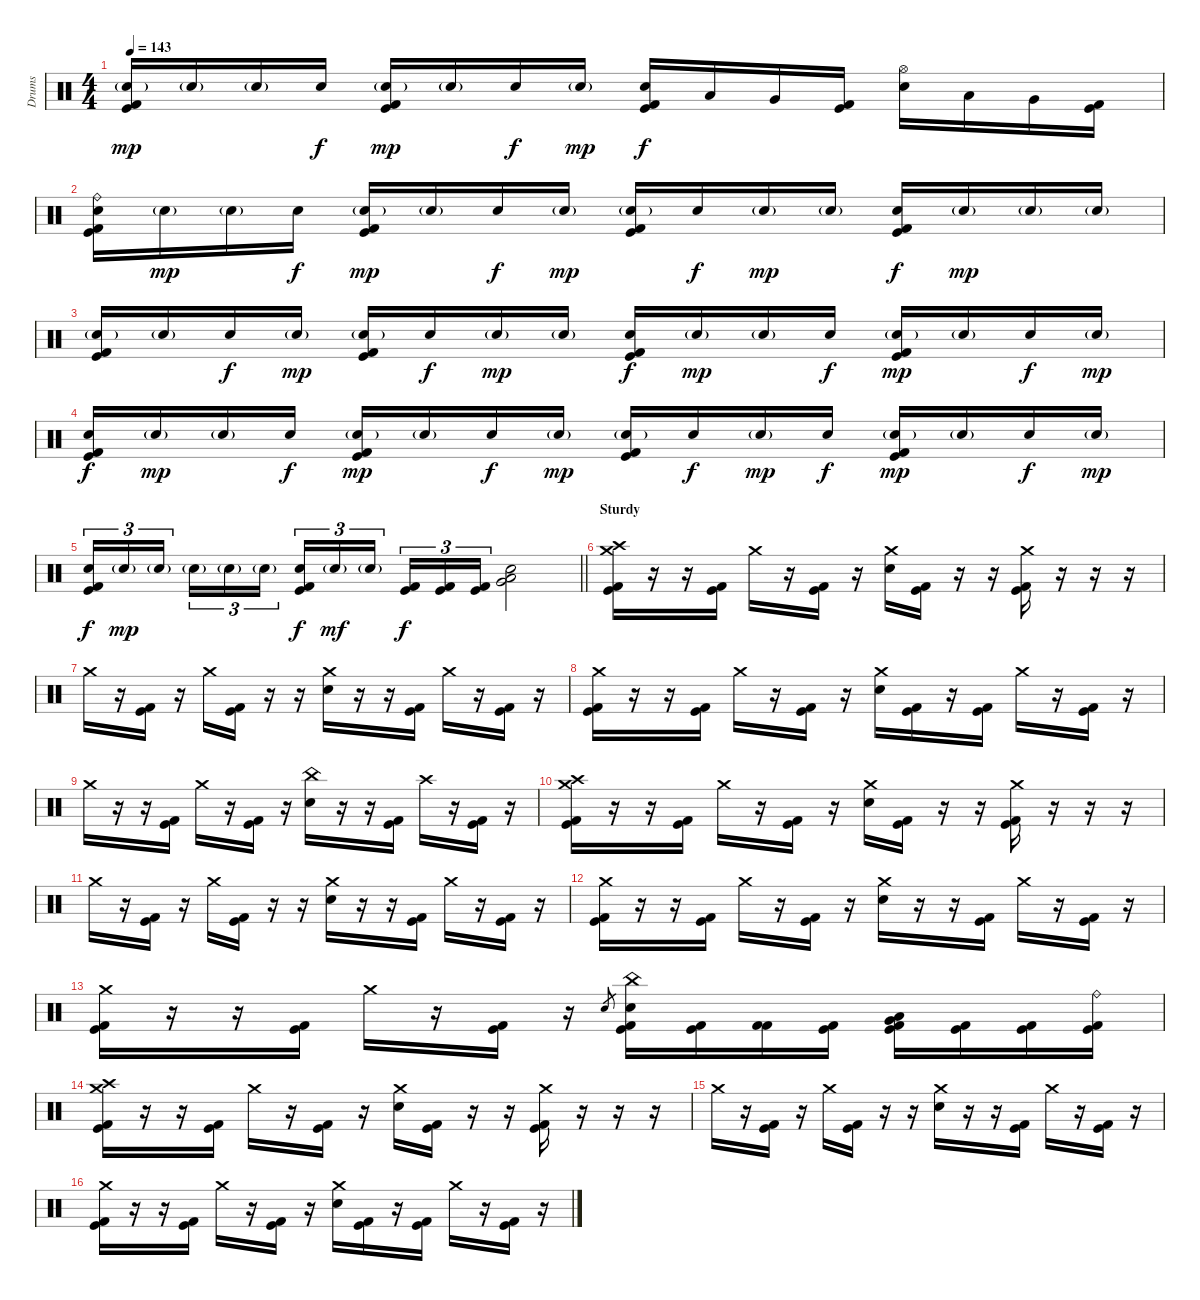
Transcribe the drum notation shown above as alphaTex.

\track ("Drums" "Drums") {instrument percussion}
\staff {score}
\articulation defaults
\ts (4 4)
\tempo 143
\clef neutral
\ks c
("Electric Snare (hit)"{g} "Kick (hit)" "Kick (hit) 2").16{dy mp} "Electric Snare (hit)"{g}.16 "Electric Snare (hit)"{g}.16 "Electric Snare (hit)".16{dy f} ("Electric Snare (hit)"{g} "Kick (hit)" "Kick (hit) 2").16{dy mp} "Electric Snare (hit)"{g}.16 "Electric Snare (hit)".16{dy f} "Electric Snare (hit)"{g}.16{dy mp} ("Electric Snare (hit)" "Kick (hit)" "Kick (hit) 2").16{dy f} "Low Tom (hit)".16 "Very Low Tom (hit)".16 ("Kick (hit)" "Kick (hit) 2").16 ("Hi-Hat (open)" "Electric Snare (hit)").16 "Low Tom (hit)".16 "Very Low Tom (hit)".16 ("Kick (hit)" "Kick (hit) 2").16 |
("Ride (bell)" "Electric Snare (hit)" "Kick (hit)" "Kick (hit) 2").16 "Electric Snare (hit)"{g}.16{dy mp} "Electric Snare (hit)"{g}.16 "Electric Snare (hit)".16{dy f} ("Electric Snare (hit)"{g} "Kick (hit)" "Kick (hit) 2").16{dy mp} "Electric Snare (hit)"{g}.16 "Electric Snare (hit)".16{dy f} "Electric Snare (hit)"{g}.16{dy mp} ("Electric Snare (hit)"{g} "Kick (hit)" "Kick (hit) 2").16 "Electric Snare (hit)".16{dy f} "Electric Snare (hit)"{g}.16{dy mp} "Electric Snare (hit)"{g}.16 ("Electric Snare (hit)" "Kick (hit)" "Kick (hit) 2").16{dy f} "Electric Snare (hit)"{g}.16{dy mp} "Electric Snare (hit)"{g}.16 "Electric Snare (hit)"{g}.16 |
("Electric Snare (hit)"{g} "Kick (hit)" "Kick (hit) 2").16 "Electric Snare (hit)"{g}.16 "Electric Snare (hit)".16{dy f} "Electric Snare (hit)"{g}.16{dy mp} ("Electric Snare (hit)"{g} "Kick (hit)" "Kick (hit) 2").16 "Electric Snare (hit)".16{dy f} "Electric Snare (hit)"{g}.16{dy mp} "Electric Snare (hit)"{g}.16 ("Electric Snare (hit)" "Kick (hit)" "Kick (hit) 2").16{dy f} "Electric Snare (hit)"{g}.16{dy mp} "Electric Snare (hit)"{g}.16 "Electric Snare (hit)".16{dy f} ("Electric Snare (hit)"{g} "Kick (hit)" "Kick (hit) 2").16{dy mp} "Electric Snare (hit)"{g}.16 "Electric Snare (hit)".16{dy f} "Electric Snare (hit)"{g}.16{dy mp} |
("Electric Snare (hit)" "Kick (hit)" "Kick (hit) 2").16{dy f} "Electric Snare (hit)"{g}.16{dy mp} "Electric Snare (hit)"{g}.16 "Electric Snare (hit)".16{dy f} ("Electric Snare (hit)"{g} "Kick (hit)" "Kick (hit) 2").16{dy mp} "Electric Snare (hit)"{g}.16 "Electric Snare (hit)".16{dy f} "Electric Snare (hit)"{g}.16{dy mp} ("Electric Snare (hit)"{g} "Kick (hit)" "Kick (hit) 2").16 "Electric Snare (hit)".16{dy f} "Electric Snare (hit)"{g}.16{dy mp} "Electric Snare (hit)".16{dy f} ("Electric Snare (hit)"{g} "Kick (hit)" "Kick (hit) 2").16{dy mp} "Electric Snare (hit)"{g}.16 "Electric Snare (hit)".16{dy f} "Electric Snare (hit)"{g}.16{dy mp} |
\barLineRight lightlight
("Electric Snare (hit)" "Kick (hit)" "Kick (hit) 2").16{tu (3 2) dy f} "Electric Snare (hit)"{g}.16{tu (3 2) dy mp} "Electric Snare (hit)"{g}.16{tu (3 2) beam splitsecondary} "Electric Snare (hit)"{g}.16{tu (3 2)} "Electric Snare (hit)"{g}.16{tu (3 2)} "Electric Snare (hit)"{g}.16{tu (3 2)} ("Electric Snare (hit)" "Kick (hit)" "Kick (hit) 2").16{tu (3 2) dy f} "Electric Snare (hit)"{g}.16{tu (3 2) dy mf} "Electric Snare (hit)"{g}.16{tu (3 2) beam splitsecondary} ("Kick (hit)" "Kick (hit) 2").16{tu (3 2) dy f} ("Kick (hit)" "Kick (hit) 2").16{tu (3 2)} ("Kick (hit)" "Kick (hit) 2").16{tu (3 2)} ("Low Floor Tom (hit)" "Very Low Tom (hit)" "Electric Snare (hit)").2 |
\section ("" "Sturdy")
("Crash medium (hit)" "Crash high (hit)" "Kick (hit)" "Kick (hit) 2").16 r.16 r.16 ("Kick (hit)" "Kick (hit) 2").16 "Crash medium (hit)".16 r.16 ("Kick (hit)" "Kick (hit) 2").16 r.16 ("Crash medium (hit)" "Electric Snare (hit)").16 ("Kick (hit)" "Kick (hit) 2").16 r.16 r.16 ("Crash medium (hit)" "Kick (hit)" "Kick (hit) 2").16 r.16 r.16 r.16 |
"Crash medium (hit)".16 r.16 ("Kick (hit)" "Kick (hit) 2").16 r.16 "Crash medium (hit)".16 ("Kick (hit)" "Kick (hit) 2").16 r.16 r.16 ("Crash medium (hit)" "Electric Snare (hit)").16 r.16 r.16 ("Kick (hit)" "Kick (hit) 2").16 "Crash medium (hit)".16 r.16 ("Kick (hit)" "Kick (hit) 2").16 r.16 |
("Crash medium (hit)" "Kick (hit)" "Kick (hit) 2").16 r.16 r.16 ("Kick (hit)" "Kick (hit) 2").16 "Crash medium (hit)".16 r.16 ("Kick (hit)" "Kick (hit) 2").16 r.16 ("Crash medium (hit)" "Electric Snare (hit)").16 ("Kick (hit)" "Kick (hit) 2").16 r.16 ("Kick (hit)" "Kick (hit) 2").16 "Crash medium (hit)".16 r.16 ("Kick (hit)" "Kick (hit) 2").16 r.16 |
"Crash medium (hit)".16 r.16 r.16 ("Kick (hit)" "Kick (hit) 2").16 "Crash medium (hit)".16 r.16 ("Kick (hit)" "Kick (hit) 2").16 r.16 ("China (hit)" "Electric Snare (hit)").16 r.16 r.16 ("Kick (hit)" "Kick (hit) 2").16 "Crash high (hit)".16 r.16 ("Kick (hit)" "Kick (hit) 2").16 r.16 |
("Crash medium (hit)" "Crash high (hit)" "Kick (hit)" "Kick (hit) 2").16 r.16 r.16 ("Kick (hit)" "Kick (hit) 2").16 "Crash medium (hit)".16 r.16 ("Kick (hit)" "Kick (hit) 2").16 r.16 ("Crash medium (hit)" "Electric Snare (hit)").16 ("Kick (hit)" "Kick (hit) 2").16 r.16 r.16 ("Crash medium (hit)" "Kick (hit)" "Kick (hit) 2").16 r.16 r.16 r.16 |
"Crash medium (hit)".16 r.16 ("Kick (hit)" "Kick (hit) 2").16 r.16 "Crash medium (hit)".16 ("Kick (hit)" "Kick (hit) 2").16 r.16 r.16 ("Crash medium (hit)" "Electric Snare (hit)").16 r.16 r.16 ("Kick (hit)" "Kick (hit) 2").16 "Crash medium (hit)".16 r.16 ("Kick (hit)" "Kick (hit) 2").16 r.16 |
("Crash medium (hit)" "Kick (hit)" "Kick (hit) 2").16 r.16 r.16 ("Kick (hit)" "Kick (hit) 2").16 "Crash medium (hit)".16 r.16 ("Kick (hit)" "Kick (hit) 2").16 r.16 ("Crash medium (hit)" "Electric Snare (hit)").16 r.16 r.16 ("Kick (hit)" "Kick (hit) 2").16 "Crash medium (hit)".16 r.16 ("Kick (hit)" "Kick (hit) 2").16 r.16 |
("Crash medium (hit)" "Kick (hit)" "Kick (hit) 2").16 r.16 r.16 ("Kick (hit)" "Kick (hit) 2").16 "Crash medium (hit)".16 r.16 ("Kick (hit)" "Kick (hit) 2").16 r.16 "Electric Snare (hit)".8{gr} ("China (hit)" "Electric Snare (hit)" "Kick (hit)" "Kick (hit) 2").16 ("Kick (hit)" "Kick (hit) 2").16 ("Kick (hit) 2" "Kick (hit) 2").16 ("Kick (hit)" "Kick (hit) 2").16 ("Low Floor Tom (hit)" "Very Low Tom (hit)" "Kick (hit)" "Kick (hit) 2").16 ("Kick (hit)" "Kick (hit) 2").16 ("Kick (hit)" "Kick (hit) 2").16 ("Ride (bell)" "Kick (hit)" "Kick (hit) 2").16 |
("Crash medium (hit)" "Crash high (hit)" "Kick (hit)" "Kick (hit) 2").16 r.16 r.16 ("Kick (hit)" "Kick (hit) 2").16 "Crash medium (hit)".16 r.16 ("Kick (hit)" "Kick (hit) 2").16 r.16 ("Crash medium (hit)" "Electric Snare (hit)").16 ("Kick (hit)" "Kick (hit) 2").16 r.16 r.16 ("Crash medium (hit)" "Kick (hit)" "Kick (hit) 2").16 r.16 r.16 r.16 |
"Crash medium (hit)".16 r.16 ("Kick (hit)" "Kick (hit) 2").16 r.16 "Crash medium (hit)".16 ("Kick (hit)" "Kick (hit) 2").16 r.16 r.16 ("Crash medium (hit)" "Electric Snare (hit)").16 r.16 r.16 ("Kick (hit)" "Kick (hit) 2").16 "Crash medium (hit)".16 r.16 ("Kick (hit)" "Kick (hit) 2").16 r.16 |
("Crash medium (hit)" "Kick (hit)" "Kick (hit) 2").16 r.16 r.16 ("Kick (hit)" "Kick (hit) 2").16 "Crash medium (hit)".16 r.16 ("Kick (hit)" "Kick (hit) 2").16 r.16 ("Crash medium (hit)" "Electric Snare (hit)").16 ("Kick (hit)" "Kick (hit) 2").16 r.16 ("Kick (hit)" "Kick (hit) 2").16 "Crash medium (hit)".16 r.16 ("Kick (hit)" "Kick (hit) 2").16 r.16
